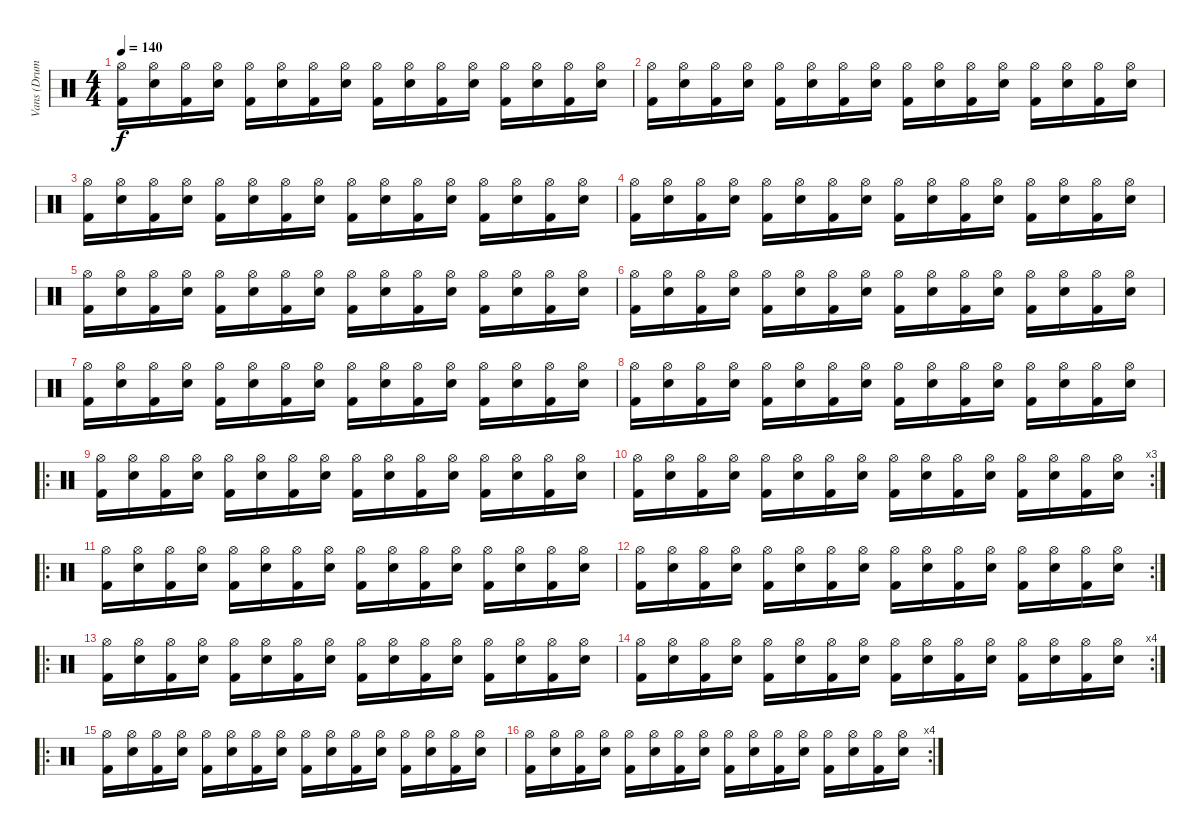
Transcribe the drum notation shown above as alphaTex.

\track ("Vans (Drums)" "Vans (Drum") {instrument percussion}
\staff {score}
\articulation defaults
\ts (4 4)
\tempo 140
\clef neutral
\ks c
("Hi-Hat (open)" "Kick (hit) 2").16{dy f} ("Hi-Hat (open)" "Snare (hit) 2").16 ("Hi-Hat (open)" "Kick (hit) 2").16 ("Hi-Hat (open)" "Snare (hit) 2").16 ("Hi-Hat (open)" "Kick (hit) 2").16 ("Hi-Hat (open)" "Snare (hit) 2").16 ("Hi-Hat (open)" "Kick (hit) 2").16 ("Hi-Hat (open)" "Snare (hit) 2").16 ("Hi-Hat (open)" "Kick (hit) 2").16 ("Hi-Hat (open)" "Snare (hit) 2").16 ("Hi-Hat (open)" "Kick (hit) 2").16 ("Hi-Hat (open)" "Snare (hit) 2").16 ("Hi-Hat (open)" "Kick (hit) 2").16 ("Hi-Hat (open)" "Snare (hit) 2").16 ("Hi-Hat (open)" "Kick (hit) 2").16 ("Hi-Hat (open)" "Snare (hit) 2").16 |
("Hi-Hat (open)" "Kick (hit) 2").16 ("Hi-Hat (open)" "Snare (hit) 2").16 ("Hi-Hat (open)" "Kick (hit) 2").16 ("Hi-Hat (open)" "Snare (hit) 2").16 ("Hi-Hat (open)" "Kick (hit) 2").16 ("Hi-Hat (open)" "Snare (hit) 2").16 ("Hi-Hat (open)" "Kick (hit) 2").16 ("Hi-Hat (open)" "Snare (hit) 2").16 ("Hi-Hat (open)" "Kick (hit) 2").16 ("Hi-Hat (open)" "Snare (hit) 2").16 ("Hi-Hat (open)" "Kick (hit) 2").16 ("Hi-Hat (open)" "Snare (hit) 2").16 ("Hi-Hat (open)" "Kick (hit) 2").16 ("Hi-Hat (open)" "Snare (hit) 2").16 ("Hi-Hat (open)" "Kick (hit) 2").16 ("Hi-Hat (open)" "Snare (hit) 2").16 |
("Hi-Hat (open)" "Kick (hit) 2").16 ("Hi-Hat (open)" "Snare (hit) 2").16 ("Hi-Hat (open)" "Kick (hit) 2").16 ("Hi-Hat (open)" "Snare (hit) 2").16 ("Hi-Hat (open)" "Kick (hit) 2").16 ("Hi-Hat (open)" "Snare (hit) 2").16 ("Hi-Hat (open)" "Kick (hit) 2").16 ("Hi-Hat (open)" "Snare (hit) 2").16 ("Hi-Hat (open)" "Kick (hit) 2").16 ("Hi-Hat (open)" "Snare (hit) 2").16 ("Hi-Hat (open)" "Kick (hit) 2").16 ("Hi-Hat (open)" "Snare (hit) 2").16 ("Hi-Hat (open)" "Kick (hit) 2").16 ("Hi-Hat (open)" "Snare (hit) 2").16 ("Hi-Hat (open)" "Kick (hit) 2").16 ("Hi-Hat (open)" "Snare (hit) 2").16 |
("Hi-Hat (open)" "Kick (hit) 2").16 ("Hi-Hat (open)" "Snare (hit) 2").16 ("Hi-Hat (open)" "Kick (hit) 2").16 ("Hi-Hat (open)" "Snare (hit) 2").16 ("Hi-Hat (open)" "Kick (hit) 2").16 ("Hi-Hat (open)" "Snare (hit) 2").16 ("Hi-Hat (open)" "Kick (hit) 2").16 ("Hi-Hat (open)" "Snare (hit) 2").16 ("Hi-Hat (open)" "Kick (hit) 2").16 ("Hi-Hat (open)" "Snare (hit) 2").16 ("Hi-Hat (open)" "Kick (hit) 2").16 ("Hi-Hat (open)" "Snare (hit) 2").16 ("Hi-Hat (open)" "Kick (hit) 2").16 ("Hi-Hat (open)" "Snare (hit) 2").16 ("Hi-Hat (open)" "Kick (hit) 2").16 ("Hi-Hat (open)" "Snare (hit) 2").16 |
("Hi-Hat (open)" "Kick (hit) 2").16 ("Hi-Hat (open)" "Snare (hit) 2").16 ("Hi-Hat (open)" "Kick (hit) 2").16 ("Hi-Hat (open)" "Snare (hit) 2").16 ("Hi-Hat (open)" "Kick (hit) 2").16 ("Hi-Hat (open)" "Snare (hit) 2").16 ("Hi-Hat (open)" "Kick (hit) 2").16 ("Hi-Hat (open)" "Snare (hit) 2").16 ("Hi-Hat (open)" "Kick (hit) 2").16 ("Hi-Hat (open)" "Snare (hit) 2").16 ("Hi-Hat (open)" "Kick (hit) 2").16 ("Hi-Hat (open)" "Snare (hit) 2").16 ("Hi-Hat (open)" "Kick (hit) 2").16 ("Hi-Hat (open)" "Snare (hit) 2").16 ("Hi-Hat (open)" "Kick (hit) 2").16 ("Hi-Hat (open)" "Snare (hit) 2").16 |
("Hi-Hat (open)" "Kick (hit) 2").16 ("Hi-Hat (open)" "Snare (hit) 2").16 ("Hi-Hat (open)" "Kick (hit) 2").16 ("Hi-Hat (open)" "Snare (hit) 2").16 ("Hi-Hat (open)" "Kick (hit) 2").16 ("Hi-Hat (open)" "Snare (hit) 2").16 ("Hi-Hat (open)" "Kick (hit) 2").16 ("Hi-Hat (open)" "Snare (hit) 2").16 ("Hi-Hat (open)" "Kick (hit) 2").16 ("Hi-Hat (open)" "Snare (hit) 2").16 ("Hi-Hat (open)" "Kick (hit) 2").16 ("Hi-Hat (open)" "Snare (hit) 2").16 ("Hi-Hat (open)" "Kick (hit) 2").16 ("Hi-Hat (open)" "Snare (hit) 2").16 ("Hi-Hat (open)" "Kick (hit) 2").16 ("Hi-Hat (open)" "Snare (hit) 2").16 |
("Hi-Hat (open)" "Kick (hit) 2").16 ("Hi-Hat (open)" "Snare (hit) 2").16 ("Hi-Hat (open)" "Kick (hit) 2").16 ("Hi-Hat (open)" "Snare (hit) 2").16 ("Hi-Hat (open)" "Kick (hit) 2").16 ("Hi-Hat (open)" "Snare (hit) 2").16 ("Hi-Hat (open)" "Kick (hit) 2").16 ("Hi-Hat (open)" "Snare (hit) 2").16 ("Hi-Hat (open)" "Kick (hit) 2").16 ("Hi-Hat (open)" "Snare (hit) 2").16 ("Hi-Hat (open)" "Kick (hit) 2").16 ("Hi-Hat (open)" "Snare (hit) 2").16 ("Hi-Hat (open)" "Kick (hit) 2").16 ("Hi-Hat (open)" "Snare (hit) 2").16 ("Hi-Hat (open)" "Kick (hit) 2").16 ("Hi-Hat (open)" "Snare (hit) 2").16 |
("Hi-Hat (open)" "Kick (hit) 2").16 ("Hi-Hat (open)" "Snare (hit) 2").16 ("Hi-Hat (open)" "Kick (hit) 2").16 ("Hi-Hat (open)" "Snare (hit) 2").16 ("Hi-Hat (open)" "Kick (hit) 2").16 ("Hi-Hat (open)" "Snare (hit) 2").16 ("Hi-Hat (open)" "Kick (hit) 2").16 ("Hi-Hat (open)" "Snare (hit) 2").16 ("Hi-Hat (open)" "Kick (hit) 2").16 ("Hi-Hat (open)" "Snare (hit) 2").16 ("Hi-Hat (open)" "Kick (hit) 2").16 ("Hi-Hat (open)" "Snare (hit) 2").16 ("Hi-Hat (open)" "Kick (hit) 2").16 ("Hi-Hat (open)" "Snare (hit) 2").16 ("Hi-Hat (open)" "Kick (hit) 2").16 ("Hi-Hat (open)" "Snare (hit) 2").16 |
\ro
("Hi-Hat (open)" "Kick (hit) 2").16 ("Hi-Hat (open)" "Snare (hit) 2").16 ("Hi-Hat (open)" "Kick (hit) 2").16 ("Hi-Hat (open)" "Snare (hit) 2").16 ("Hi-Hat (open)" "Kick (hit) 2").16 ("Hi-Hat (open)" "Snare (hit) 2").16 ("Hi-Hat (open)" "Kick (hit) 2").16 ("Hi-Hat (open)" "Snare (hit) 2").16 ("Hi-Hat (open)" "Kick (hit) 2").16 ("Hi-Hat (open)" "Snare (hit) 2").16 ("Hi-Hat (open)" "Kick (hit) 2").16 ("Hi-Hat (open)" "Snare (hit) 2").16 ("Hi-Hat (open)" "Kick (hit) 2").16 ("Hi-Hat (open)" "Snare (hit) 2").16 ("Hi-Hat (open)" "Kick (hit) 2").16 ("Hi-Hat (open)" "Snare (hit) 2").16 |
\rc 3
("Hi-Hat (open)" "Kick (hit) 2").16 ("Hi-Hat (open)" "Snare (hit) 2").16 ("Hi-Hat (open)" "Kick (hit) 2").16 ("Hi-Hat (open)" "Snare (hit) 2").16 ("Hi-Hat (open)" "Kick (hit) 2").16 ("Hi-Hat (open)" "Snare (hit) 2").16 ("Hi-Hat (open)" "Kick (hit) 2").16 ("Hi-Hat (open)" "Snare (hit) 2").16 ("Hi-Hat (open)" "Kick (hit) 2").16 ("Hi-Hat (open)" "Snare (hit) 2").16 ("Hi-Hat (open)" "Kick (hit) 2").16 ("Hi-Hat (open)" "Snare (hit) 2").16 ("Hi-Hat (open)" "Kick (hit) 2").16 ("Hi-Hat (open)" "Snare (hit) 2").16 ("Hi-Hat (open)" "Kick (hit) 2").16 ("Hi-Hat (open)" "Snare (hit) 2").16 |
\ro
("Hi-Hat (open)" "Kick (hit) 2").16 ("Hi-Hat (open)" "Snare (hit) 2").16 ("Hi-Hat (open)" "Kick (hit) 2").16 ("Hi-Hat (open)" "Snare (hit) 2").16 ("Hi-Hat (open)" "Kick (hit) 2").16 ("Hi-Hat (open)" "Snare (hit) 2").16 ("Hi-Hat (open)" "Kick (hit) 2").16 ("Hi-Hat (open)" "Snare (hit) 2").16 ("Hi-Hat (open)" "Kick (hit) 2").16 ("Hi-Hat (open)" "Snare (hit) 2").16 ("Hi-Hat (open)" "Kick (hit) 2").16 ("Hi-Hat (open)" "Snare (hit) 2").16 ("Hi-Hat (open)" "Kick (hit) 2").16 ("Hi-Hat (open)" "Snare (hit) 2").16 ("Hi-Hat (open)" "Kick (hit) 2").16 ("Hi-Hat (open)" "Snare (hit) 2").16 |
\rc 2
("Hi-Hat (open)" "Kick (hit) 2").16 ("Hi-Hat (open)" "Snare (hit) 2").16 ("Hi-Hat (open)" "Kick (hit) 2").16 ("Hi-Hat (open)" "Snare (hit) 2").16 ("Hi-Hat (open)" "Kick (hit) 2").16 ("Hi-Hat (open)" "Snare (hit) 2").16 ("Hi-Hat (open)" "Kick (hit) 2").16 ("Hi-Hat (open)" "Snare (hit) 2").16 ("Hi-Hat (open)" "Kick (hit) 2").16 ("Hi-Hat (open)" "Snare (hit) 2").16 ("Hi-Hat (open)" "Kick (hit) 2").16 ("Hi-Hat (open)" "Snare (hit) 2").16 ("Hi-Hat (open)" "Kick (hit) 2").16 ("Hi-Hat (open)" "Snare (hit) 2").16 ("Hi-Hat (open)" "Kick (hit) 2").16 ("Hi-Hat (open)" "Snare (hit) 2").16 |
\ro
("Hi-Hat (open)" "Kick (hit) 2").16 ("Hi-Hat (open)" "Snare (hit) 2").16 ("Hi-Hat (open)" "Kick (hit) 2").16 ("Hi-Hat (open)" "Snare (hit) 2").16 ("Hi-Hat (open)" "Kick (hit) 2").16 ("Hi-Hat (open)" "Snare (hit) 2").16 ("Hi-Hat (open)" "Kick (hit) 2").16 ("Hi-Hat (open)" "Snare (hit) 2").16 ("Hi-Hat (open)" "Kick (hit) 2").16 ("Hi-Hat (open)" "Snare (hit) 2").16 ("Hi-Hat (open)" "Kick (hit) 2").16 ("Hi-Hat (open)" "Snare (hit) 2").16 ("Hi-Hat (open)" "Kick (hit) 2").16 ("Hi-Hat (open)" "Snare (hit) 2").16 ("Hi-Hat (open)" "Kick (hit) 2").16 ("Hi-Hat (open)" "Snare (hit) 2").16 |
\rc 4
("Hi-Hat (open)" "Kick (hit) 2").16 ("Hi-Hat (open)" "Snare (hit) 2").16 ("Hi-Hat (open)" "Kick (hit) 2").16 ("Hi-Hat (open)" "Snare (hit) 2").16 ("Hi-Hat (open)" "Kick (hit) 2").16 ("Hi-Hat (open)" "Snare (hit) 2").16 ("Hi-Hat (open)" "Kick (hit) 2").16 ("Hi-Hat (open)" "Snare (hit) 2").16 ("Hi-Hat (open)" "Kick (hit) 2").16 ("Hi-Hat (open)" "Snare (hit) 2").16 ("Hi-Hat (open)" "Kick (hit) 2").16 ("Hi-Hat (open)" "Snare (hit) 2").16 ("Hi-Hat (open)" "Kick (hit) 2").16 ("Hi-Hat (open)" "Snare (hit) 2").16 ("Hi-Hat (open)" "Kick (hit) 2").16 ("Hi-Hat (open)" "Snare (hit) 2").16 |
\ro
("Hi-Hat (open)" "Kick (hit) 2").16 ("Hi-Hat (open)" "Snare (hit) 2").16 ("Hi-Hat (open)" "Kick (hit) 2").16 ("Hi-Hat (open)" "Snare (hit) 2").16 ("Hi-Hat (open)" "Kick (hit) 2").16 ("Hi-Hat (open)" "Snare (hit) 2").16 ("Hi-Hat (open)" "Kick (hit) 2").16 ("Hi-Hat (open)" "Snare (hit) 2").16 ("Hi-Hat (open)" "Kick (hit) 2").16 ("Hi-Hat (open)" "Snare (hit) 2").16 ("Hi-Hat (open)" "Kick (hit) 2").16 ("Hi-Hat (open)" "Snare (hit) 2").16 ("Hi-Hat (open)" "Kick (hit) 2").16 ("Hi-Hat (open)" "Snare (hit) 2").16 ("Hi-Hat (open)" "Kick (hit) 2").16 ("Hi-Hat (open)" "Snare (hit) 2").16 |
\rc 4
("Hi-Hat (open)" "Kick (hit) 2").16 ("Hi-Hat (open)" "Snare (hit) 2").16 ("Hi-Hat (open)" "Kick (hit) 2").16 ("Hi-Hat (open)" "Snare (hit) 2").16 ("Hi-Hat (open)" "Kick (hit) 2").16 ("Hi-Hat (open)" "Snare (hit) 2").16 ("Hi-Hat (open)" "Kick (hit) 2").16 ("Hi-Hat (open)" "Snare (hit) 2").16 ("Hi-Hat (open)" "Kick (hit) 2").16 ("Hi-Hat (open)" "Snare (hit) 2").16 ("Hi-Hat (open)" "Kick (hit) 2").16 ("Hi-Hat (open)" "Snare (hit) 2").16 ("Hi-Hat (open)" "Kick (hit) 2").16 ("Hi-Hat (open)" "Snare (hit) 2").16 ("Hi-Hat (open)" "Kick (hit) 2").16 ("Hi-Hat (open)" "Snare (hit) 2").16
